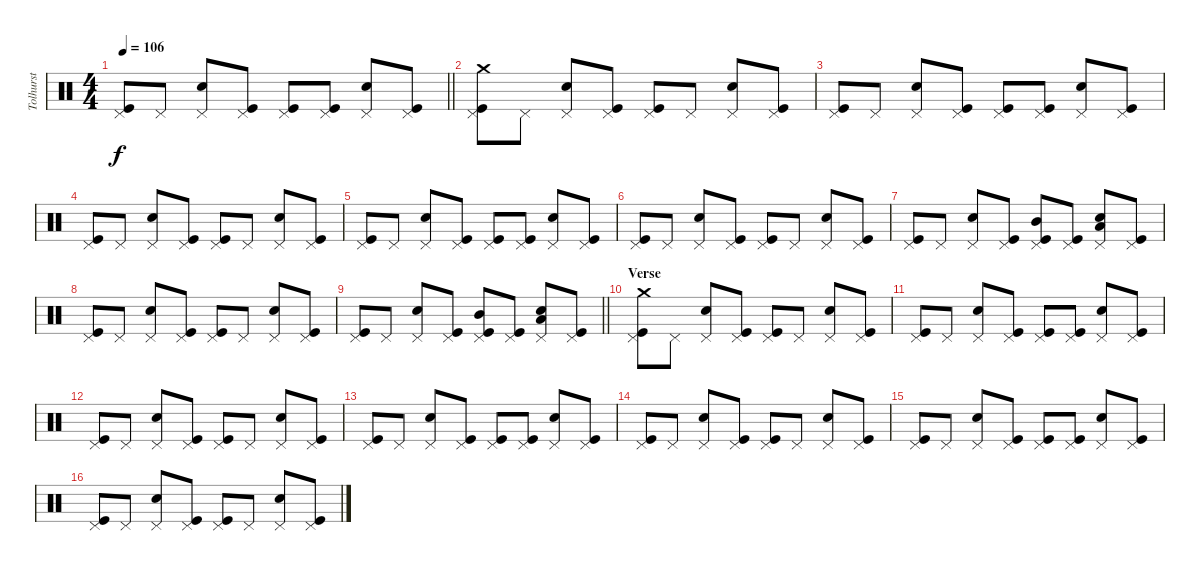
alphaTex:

\track ("Tolhurst" "Tolhurst") {instrument percussion}
\staff {score}
\articulation defaults
\ts (4 4)
\tempo 106
\clef neutral
\barLineRight lightlight
\ks c
("Pedal Hi-Hat (hit)" "Kick (hit)").8{dy f} "Pedal Hi-Hat (hit)".8 ("Pedal Hi-Hat (hit)" "Snare (hit) 2").8 ("Pedal Hi-Hat (hit)" "Kick (hit)").8 ("Pedal Hi-Hat (hit)" "Kick (hit)").8 ("Pedal Hi-Hat (hit)" "Kick (hit)").8 ("Pedal Hi-Hat (hit)" "Snare (hit) 2").8 ("Pedal Hi-Hat (hit)" "Kick (hit)").8 |
("Crash medium (hit)" "Pedal Hi-Hat (hit)" "Kick (hit)").8 "Pedal Hi-Hat (hit)".8 ("Pedal Hi-Hat (hit)" "Snare (hit) 2").8 ("Pedal Hi-Hat (hit)" "Kick (hit)").8 ("Pedal Hi-Hat (hit)" "Kick (hit)").8 "Pedal Hi-Hat (hit)".8 ("Pedal Hi-Hat (hit)" "Snare (hit) 2").8 ("Pedal Hi-Hat (hit)" "Kick (hit)").8 |
("Pedal Hi-Hat (hit)" "Kick (hit)").8 "Pedal Hi-Hat (hit)".8 ("Pedal Hi-Hat (hit)" "Snare (hit) 2").8 ("Pedal Hi-Hat (hit)" "Kick (hit)").8 ("Pedal Hi-Hat (hit)" "Kick (hit)").8 ("Pedal Hi-Hat (hit)" "Kick (hit)").8 ("Pedal Hi-Hat (hit)" "Snare (hit) 2").8 ("Pedal Hi-Hat (hit)" "Kick (hit)").8 |
("Pedal Hi-Hat (hit)" "Kick (hit)").8 "Pedal Hi-Hat (hit)".8 ("Pedal Hi-Hat (hit)" "Snare (hit) 2").8 ("Pedal Hi-Hat (hit)" "Kick (hit)").8 ("Pedal Hi-Hat (hit)" "Kick (hit)").8 "Pedal Hi-Hat (hit)".8 ("Pedal Hi-Hat (hit)" "Snare (hit) 2").8 ("Pedal Hi-Hat (hit)" "Kick (hit)").8 |
("Pedal Hi-Hat (hit)" "Kick (hit)").8 "Pedal Hi-Hat (hit)".8 ("Pedal Hi-Hat (hit)" "Snare (hit) 2").8 ("Pedal Hi-Hat (hit)" "Kick (hit)").8 ("Pedal Hi-Hat (hit)" "Kick (hit)").8 ("Pedal Hi-Hat (hit)" "Kick (hit)").8 ("Pedal Hi-Hat (hit)" "Snare (hit) 2").8 ("Pedal Hi-Hat (hit)" "Kick (hit)").8 |
("Pedal Hi-Hat (hit)" "Kick (hit)").8 "Pedal Hi-Hat (hit)".8 ("Pedal Hi-Hat (hit)" "Snare (hit) 2").8 ("Pedal Hi-Hat (hit)" "Kick (hit)").8 ("Pedal Hi-Hat (hit)" "Kick (hit)").8 "Pedal Hi-Hat (hit)".8 ("Pedal Hi-Hat (hit)" "Snare (hit) 2").8 ("Pedal Hi-Hat (hit)" "Kick (hit)").8 |
("Pedal Hi-Hat (hit)" "Kick (hit)").8 "Pedal Hi-Hat (hit)".8 ("Pedal Hi-Hat (hit)" "Snare (hit) 2").8 ("Pedal Hi-Hat (hit)" "Kick (hit)").8 ("Mid Tom (hit)" "Pedal Hi-Hat (hit)" "Kick (hit)").8 ("Pedal Hi-Hat (hit)" "Kick (hit)").8 ("Low Tom (hit)" "Pedal Hi-Hat (hit)" "Snare (hit) 2").8 ("Pedal Hi-Hat (hit)" "Kick (hit)").8 |
("Pedal Hi-Hat (hit)" "Kick (hit)").8 "Pedal Hi-Hat (hit)".8 ("Pedal Hi-Hat (hit)" "Snare (hit) 2").8 ("Pedal Hi-Hat (hit)" "Kick (hit)").8 ("Pedal Hi-Hat (hit)" "Kick (hit)").8 "Pedal Hi-Hat (hit)".8 ("Pedal Hi-Hat (hit)" "Snare (hit) 2").8 ("Pedal Hi-Hat (hit)" "Kick (hit)").8 |
\barLineRight lightlight
("Pedal Hi-Hat (hit)" "Kick (hit)").8 "Pedal Hi-Hat (hit)".8 ("Pedal Hi-Hat (hit)" "Snare (hit) 2").8 ("Pedal Hi-Hat (hit)" "Kick (hit)").8 ("Mid Tom (hit)" "Pedal Hi-Hat (hit)" "Kick (hit)").8 ("Pedal Hi-Hat (hit)" "Kick (hit)").8 ("Low Tom (hit)" "Pedal Hi-Hat (hit)" "Snare (hit) 2").8 ("Pedal Hi-Hat (hit)" "Kick (hit)").8 |
\section ("" "Verse")
("Crash medium (hit)" "Pedal Hi-Hat (hit)" "Kick (hit)").8 "Pedal Hi-Hat (hit)".8 ("Pedal Hi-Hat (hit)" "Snare (hit) 2").8 ("Pedal Hi-Hat (hit)" "Kick (hit)").8 ("Pedal Hi-Hat (hit)" "Kick (hit)").8 "Pedal Hi-Hat (hit)".8 ("Pedal Hi-Hat (hit)" "Snare (hit) 2").8 ("Pedal Hi-Hat (hit)" "Kick (hit)").8 |
("Pedal Hi-Hat (hit)" "Kick (hit)").8 "Pedal Hi-Hat (hit)".8 ("Pedal Hi-Hat (hit)" "Snare (hit) 2").8 ("Pedal Hi-Hat (hit)" "Kick (hit)").8 ("Pedal Hi-Hat (hit)" "Kick (hit)").8 ("Pedal Hi-Hat (hit)" "Kick (hit)").8 ("Pedal Hi-Hat (hit)" "Snare (hit) 2").8 ("Pedal Hi-Hat (hit)" "Kick (hit)").8 |
("Pedal Hi-Hat (hit)" "Kick (hit)").8 "Pedal Hi-Hat (hit)".8 ("Pedal Hi-Hat (hit)" "Snare (hit) 2").8 ("Pedal Hi-Hat (hit)" "Kick (hit)").8 ("Pedal Hi-Hat (hit)" "Kick (hit)").8 "Pedal Hi-Hat (hit)".8 ("Pedal Hi-Hat (hit)" "Snare (hit) 2").8 ("Pedal Hi-Hat (hit)" "Kick (hit)").8 |
("Pedal Hi-Hat (hit)" "Kick (hit)").8 "Pedal Hi-Hat (hit)".8 ("Pedal Hi-Hat (hit)" "Snare (hit) 2").8 ("Pedal Hi-Hat (hit)" "Kick (hit)").8 ("Pedal Hi-Hat (hit)" "Kick (hit)").8 ("Pedal Hi-Hat (hit)" "Kick (hit)").8 ("Pedal Hi-Hat (hit)" "Snare (hit) 2").8 ("Pedal Hi-Hat (hit)" "Kick (hit)").8 |
("Pedal Hi-Hat (hit)" "Kick (hit)").8 "Pedal Hi-Hat (hit)".8 ("Pedal Hi-Hat (hit)" "Snare (hit) 2").8 ("Pedal Hi-Hat (hit)" "Kick (hit)").8 ("Pedal Hi-Hat (hit)" "Kick (hit)").8 "Pedal Hi-Hat (hit)".8 ("Pedal Hi-Hat (hit)" "Snare (hit) 2").8 ("Pedal Hi-Hat (hit)" "Kick (hit)").8 |
("Pedal Hi-Hat (hit)" "Kick (hit)").8 "Pedal Hi-Hat (hit)".8 ("Pedal Hi-Hat (hit)" "Snare (hit) 2").8 ("Pedal Hi-Hat (hit)" "Kick (hit)").8 ("Pedal Hi-Hat (hit)" "Kick (hit)").8 ("Pedal Hi-Hat (hit)" "Kick (hit)").8 ("Pedal Hi-Hat (hit)" "Snare (hit) 2").8 ("Pedal Hi-Hat (hit)" "Kick (hit)").8 |
("Pedal Hi-Hat (hit)" "Kick (hit)").8 "Pedal Hi-Hat (hit)".8 ("Pedal Hi-Hat (hit)" "Snare (hit) 2").8 ("Pedal Hi-Hat (hit)" "Kick (hit)").8 ("Pedal Hi-Hat (hit)" "Kick (hit)").8 "Pedal Hi-Hat (hit)".8 ("Pedal Hi-Hat (hit)" "Snare (hit) 2").8 ("Pedal Hi-Hat (hit)" "Kick (hit)").8
